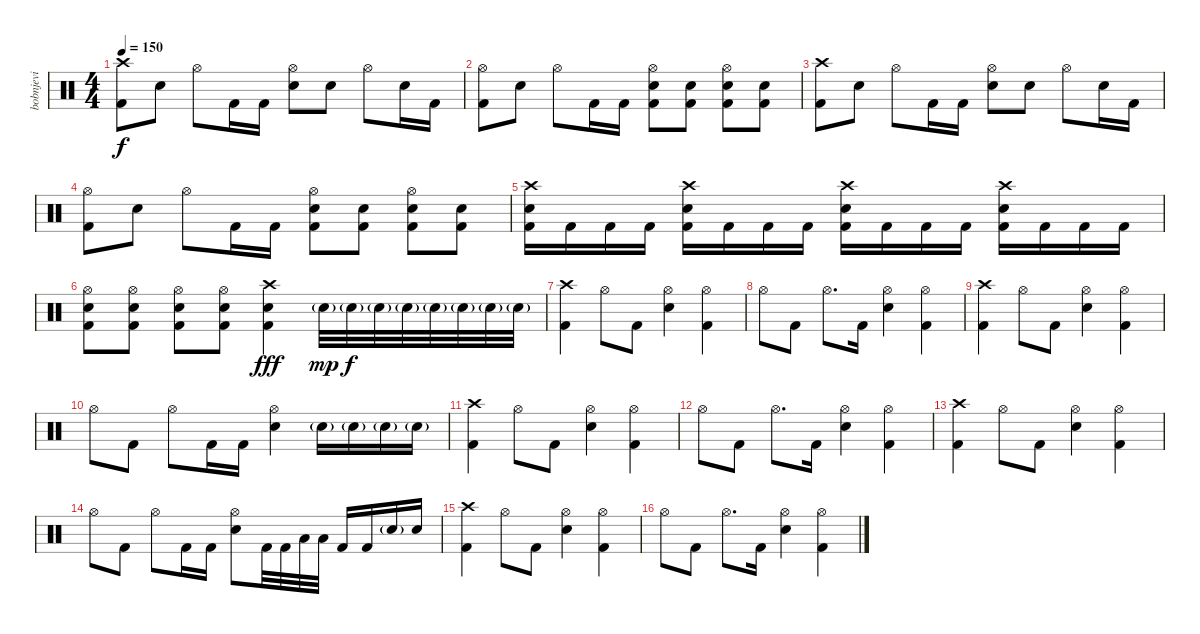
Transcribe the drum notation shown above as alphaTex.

\track ("bobnjevi" "bobnjevi") {instrument percussion}
\staff {score}
\articulation defaults
\ts (4 4)
\tempo 150
\clef neutral
\ks c
("Crash high (hit)" "Kick (hit) 2").8{dy f} "Electric Snare (hit)".8 "Hi-Hat (open)".8 "Kick (hit) 2".16 "Kick (hit) 2".16 ("Hi-Hat (open)" "Electric Snare (hit)").8 "Electric Snare (hit)".8 "Hi-Hat (open)".8 "Electric Snare (hit)".16 "Kick (hit) 2".16 |
("Hi-Hat (open)" "Kick (hit) 2").8 "Electric Snare (hit)".8 "Hi-Hat (open)".8 "Kick (hit) 2".16 "Kick (hit) 2".16 ("Hi-Hat (open)" "Electric Snare (hit)" "Kick (hit) 2").8 ("Electric Snare (hit)" "Kick (hit) 2").8 ("Hi-Hat (open)" "Electric Snare (hit)" "Kick (hit) 2").8 ("Electric Snare (hit)" "Kick (hit) 2").8 |
("Crash high (hit)" "Kick (hit) 2").8 "Electric Snare (hit)".8 "Hi-Hat (open)".8 "Kick (hit) 2".16 "Kick (hit) 2".16 ("Hi-Hat (open)" "Electric Snare (hit)").8 "Electric Snare (hit)".8 "Hi-Hat (open)".8 "Electric Snare (hit)".16 "Kick (hit) 2".16 |
("Hi-Hat (open)" "Kick (hit) 2").8 "Electric Snare (hit)".8 "Hi-Hat (open)".8 "Kick (hit) 2".16 "Kick (hit) 2".16 ("Hi-Hat (open)" "Electric Snare (hit)" "Kick (hit) 2").8 ("Electric Snare (hit)" "Kick (hit) 2").8 ("Hi-Hat (open)" "Electric Snare (hit)" "Kick (hit) 2").8 ("Electric Snare (hit)" "Kick (hit) 2").8 |
("Crash high (hit)" "Electric Snare (hit)" "Kick (hit) 2").16 "Kick (hit) 2".16 "Kick (hit) 2".16 "Kick (hit) 2".16 ("Crash high (hit)" "Electric Snare (hit)" "Kick (hit) 2").16 "Kick (hit) 2".16 "Kick (hit) 2".16 "Kick (hit) 2".16 ("Crash high (hit)" "Electric Snare (hit)" "Kick (hit) 2").16 "Kick (hit) 2".16 "Kick (hit) 2".16 "Kick (hit) 2".16 ("Crash high (hit)" "Electric Snare (hit)" "Kick (hit) 2").16 "Kick (hit) 2".16 "Kick (hit) 2".16 "Kick (hit) 2".16 |
("Hi-Hat (open)" "Electric Snare (hit)" "Kick (hit) 2").8 ("Hi-Hat (open)" "Electric Snare (hit)" "Kick (hit) 2").8 ("Hi-Hat (open)" "Electric Snare (hit)" "Kick (hit) 2").8 ("Hi-Hat (open)" "Electric Snare (hit)" "Kick (hit) 2").8 ("Crash high (hit)" "Electric Snare (hit)" "Kick (hit) 2").4{dy fff} "Electric Snare (hit)"{g}.32{dy mp} "Electric Snare (hit)"{g}.32{dy f} "Electric Snare (hit)"{g}.32 "Electric Snare (hit)"{g}.32 "Electric Snare (hit)"{g}.32 "Electric Snare (hit)"{g}.32 "Electric Snare (hit)"{g}.32 "Electric Snare (hit)"{g}.32 |
("Crash high (hit)" "Kick (hit) 2").4 "Hi-Hat (open)".8 "Kick (hit) 2".8 ("Hi-Hat (open)" "Electric Snare (hit)").4 ("Hi-Hat (open)" "Kick (hit) 2").4 |
"Hi-Hat (open)".8 "Kick (hit) 2".8 "Hi-Hat (open)".8{d} "Kick (hit) 2".16 ("Hi-Hat (open)" "Electric Snare (hit)").4 ("Hi-Hat (open)" "Kick (hit) 2").4 |
("Crash high (hit)" "Kick (hit) 2").4 "Hi-Hat (open)".8 "Kick (hit) 2".8 ("Hi-Hat (open)" "Electric Snare (hit)").4 ("Hi-Hat (open)" "Kick (hit) 2").4 |
"Hi-Hat (open)".8 "Kick (hit) 2".8 "Hi-Hat (open)".8 "Kick (hit) 2".16 "Kick (hit) 2".16 ("Hi-Hat (open)" "Electric Snare (hit)").4 "Electric Snare (hit)"{g}.16 "Electric Snare (hit)"{g}.16 "Electric Snare (hit)"{g}.16 "Electric Snare (hit)"{g}.16 |
("Crash high (hit)" "Kick (hit) 2").4 "Hi-Hat (open)".8 "Kick (hit) 2".8 ("Hi-Hat (open)" "Electric Snare (hit)").4 ("Hi-Hat (open)" "Kick (hit) 2").4 |
"Hi-Hat (open)".8 "Kick (hit) 2".8 "Hi-Hat (open)".8{d} "Kick (hit) 2".16 ("Hi-Hat (open)" "Electric Snare (hit)").4 ("Hi-Hat (open)" "Kick (hit) 2").4 |
("Crash high (hit)" "Kick (hit) 2").4 "Hi-Hat (open)".8 "Kick (hit) 2".8 ("Hi-Hat (open)" "Electric Snare (hit)").4 ("Hi-Hat (open)" "Kick (hit) 2").4 |
"Hi-Hat (open)".8 "Kick (hit) 2".8 "Hi-Hat (open)".8 "Kick (hit) 2".16 "Kick (hit) 2".16 ("Hi-Hat (open)" "Electric Snare (hit)").8 "Kick (hit) 2".32 "Kick (hit) 2".32 "Low Tom (hit)".32 "Low Tom (hit)".32 "Kick (hit) 2".16 "Kick (hit) 2".16 "Electric Snare (hit)"{g}.16 "Electric Snare (hit)".16 |
("Crash high (hit)" "Kick (hit) 2").4 "Hi-Hat (open)".8 "Kick (hit) 2".8 ("Hi-Hat (open)" "Electric Snare (hit)").4 ("Hi-Hat (open)" "Kick (hit) 2").4 |
"Hi-Hat (open)".8 "Kick (hit) 2".8 "Hi-Hat (open)".8{d} "Kick (hit) 2".16 ("Hi-Hat (open)" "Electric Snare (hit)").4 ("Hi-Hat (open)" "Kick (hit) 2").4
